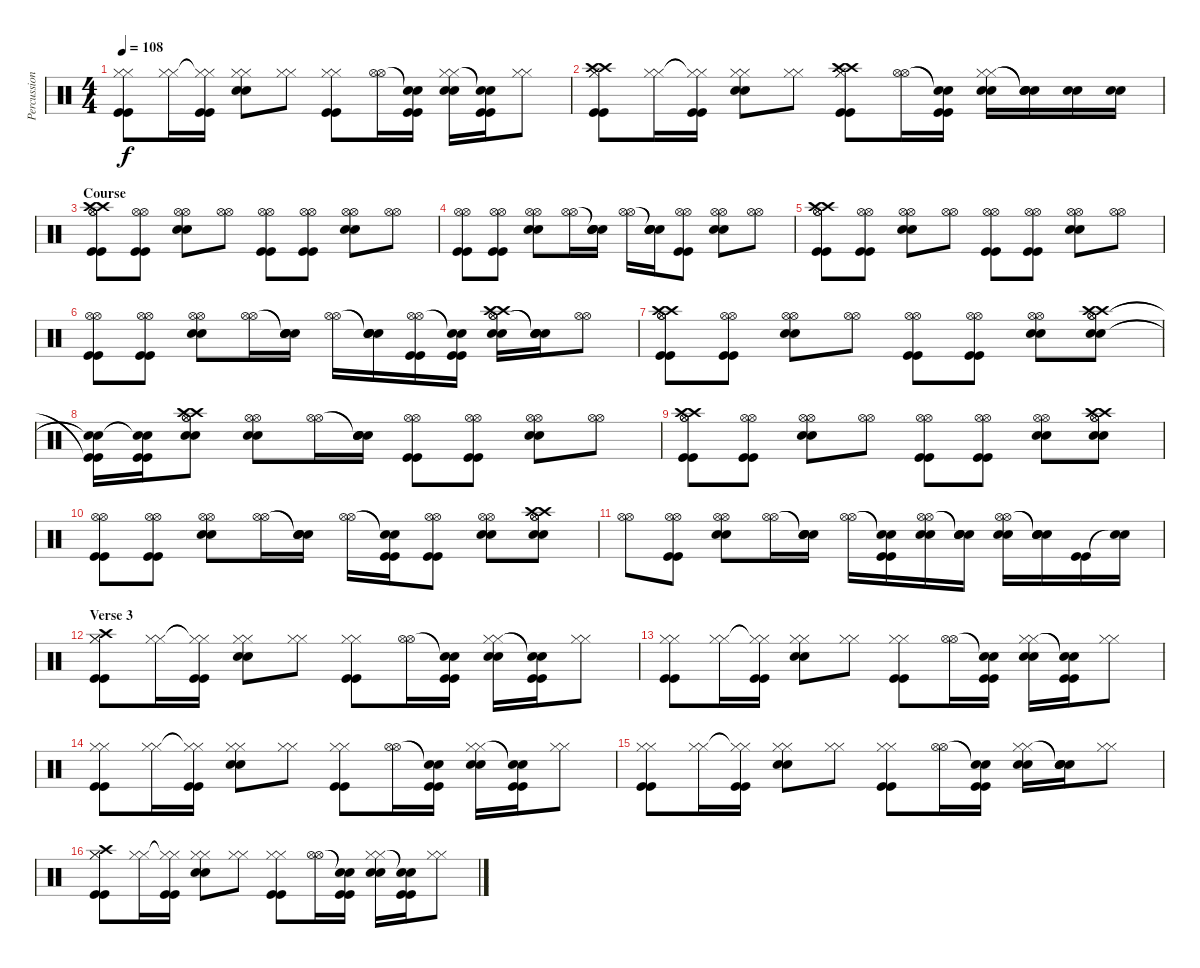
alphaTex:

\track ("Percussion" "Percussion") {instrument percussion}
\staff {score}
\articulation defaults
\ts (4 4)
\tempo 108
\clef neutral
\ks c
("Hi-Hat (closed)" "Hi-Hat (closed)" "Kick (hit)" "Kick (hit)").8{dy f} ("Hi-Hat (closed)" "Hi-Hat (closed)").16 ("Hi-Hat (closed)"{t} "Hi-Hat (closed)"{t} "Kick (hit)" "Kick (hit)").16 ("Hi-Hat (closed)" "Hi-Hat (closed)" "Electric Snare (hit)" "Electric Snare (hit)").8 ("Hi-Hat (closed)" "Hi-Hat (closed)").8 ("Hi-Hat (closed)" "Hi-Hat (closed)" "Kick (hit)" "Kick (hit)").8 ("Hi-Hat (open)" "Hi-Hat (open)").16 ("Snare (hit)"{t} "Snare (hit)"{t} "Kick (hit)" "Kick (hit)").16 ("Hi-Hat (closed)" "Hi-Hat (closed)" "Electric Snare (hit)" "Electric Snare (hit)").16 ("Snare (hit)"{t} "Snare (hit)"{t} "Kick (hit)" "Kick (hit)").16 ("Hi-Hat (closed)" "Hi-Hat (closed)").8 |
("Hi-Hat (closed)" "Hi-Hat (closed)" "Kick (hit)" "Kick (hit)" "Crash high (hit)" "Crash high (hit)").8 ("Hi-Hat (closed)" "Hi-Hat (closed)").16 ("Hi-Hat (closed)"{t} "Hi-Hat (closed)"{t} "Kick (hit)" "Kick (hit)").16 ("Hi-Hat (closed)" "Hi-Hat (closed)" "Electric Snare (hit)" "Electric Snare (hit)").8 ("Hi-Hat (closed)" "Hi-Hat (closed)").8 ("Hi-Hat (closed)" "Hi-Hat (closed)" "Kick (hit)" "Kick (hit)" "Crash high (hit)" "Crash high (hit)").8 ("Hi-Hat (open)" "Hi-Hat (open)").16 ("Snare (hit)"{t} "Snare (hit)"{t} "Kick (hit)" "Kick (hit)").16 ("Hi-Hat (closed)" "Hi-Hat (closed)" "Electric Snare (hit)" "Electric Snare (hit)").16 ("Snare (hit)"{t} "Snare (hit)"{t} "Electric Snare (hit)" "Electric Snare (hit)").16 ("Electric Snare (hit)" "Electric Snare (hit)").16 ("Electric Snare (hit)" "Electric Snare (hit)").16 |
\section ("" "Course")
("Hi-Hat (open)" "Hi-Hat (open)" "Kick (hit)" "Kick (hit)" "Crash high (hit)" "Crash high (hit)").8 ("Hi-Hat (open)" "Hi-Hat (open)" "Kick (hit)" "Kick (hit)").8 ("Hi-Hat (open)" "Hi-Hat (open)" "Electric Snare (hit)" "Electric Snare (hit)").8 ("Hi-Hat (open)" "Hi-Hat (open)").8 ("Hi-Hat (open)" "Hi-Hat (open)" "Kick (hit)" "Kick (hit)").8 ("Hi-Hat (open)" "Hi-Hat (open)" "Kick (hit)" "Kick (hit)").8 ("Hi-Hat (open)" "Hi-Hat (open)" "Electric Snare (hit)" "Electric Snare (hit)").8 ("Hi-Hat (open)" "Hi-Hat (open)").8 |
("Hi-Hat (open)" "Hi-Hat (open)" "Kick (hit)" "Kick (hit)").8 ("Hi-Hat (open)" "Hi-Hat (open)" "Kick (hit)" "Kick (hit)").8 ("Hi-Hat (open)" "Hi-Hat (open)" "Electric Snare (hit)" "Electric Snare (hit)").8 ("Hi-Hat (open)" "Hi-Hat (open)").16 ("Snare (hit)"{t} "Snare (hit)"{t} "Electric Snare (hit)" "Electric Snare (hit)").16 ("Hi-Hat (open)" "Hi-Hat (open)").16 ("Snare (hit)"{t} "Snare (hit)"{t} "Electric Snare (hit)" "Electric Snare (hit)").16 ("Hi-Hat (open)" "Hi-Hat (open)" "Kick (hit)" "Kick (hit)").8 ("Hi-Hat (open)" "Hi-Hat (open)" "Electric Snare (hit)" "Electric Snare (hit)").8 ("Hi-Hat (open)" "Hi-Hat (open)").8 |
("Hi-Hat (open)" "Hi-Hat (open)" "Kick (hit)" "Kick (hit)" "Crash high (hit)" "Crash high (hit)").8 ("Hi-Hat (open)" "Hi-Hat (open)" "Kick (hit)" "Kick (hit)").8 ("Hi-Hat (open)" "Hi-Hat (open)" "Electric Snare (hit)" "Electric Snare (hit)").8 ("Hi-Hat (open)" "Hi-Hat (open)").8 ("Hi-Hat (open)" "Hi-Hat (open)" "Kick (hit)" "Kick (hit)").8 ("Hi-Hat (open)" "Hi-Hat (open)" "Kick (hit)" "Kick (hit)").8 ("Hi-Hat (open)" "Hi-Hat (open)" "Electric Snare (hit)" "Electric Snare (hit)").8 ("Hi-Hat (open)" "Hi-Hat (open)").8 |
("Hi-Hat (open)" "Hi-Hat (open)" "Kick (hit)" "Kick (hit)").8 ("Hi-Hat (open)" "Hi-Hat (open)" "Kick (hit)" "Kick (hit)").8 ("Hi-Hat (open)" "Hi-Hat (open)" "Electric Snare (hit)" "Electric Snare (hit)").8 ("Hi-Hat (open)" "Hi-Hat (open)").16 ("Snare (hit)"{t} "Snare (hit)"{t} "Electric Snare (hit)" "Electric Snare (hit)").16 ("Hi-Hat (open)" "Hi-Hat (open)").16 ("Snare (hit)"{t} "Snare (hit)"{t} "Electric Snare (hit)" "Electric Snare (hit)").16 ("Hi-Hat (open)" "Hi-Hat (open)" "Kick (hit)" "Kick (hit)").16 ("Snare (hit)"{t} "Snare (hit)"{t} "Kick (hit)" "Kick (hit)").16 ("Hi-Hat (open)" "Hi-Hat (open)" "Electric Snare (hit)" "Electric Snare (hit)" "Crash high (hit)" "Crash high (hit)").16 ("Snare (hit)"{t} "Snare (hit)"{t} "Electric Snare (hit)" "Electric Snare (hit)").16 ("Hi-Hat (open)" "Hi-Hat (open)").8 |
("Hi-Hat (open)" "Hi-Hat (open)" "Kick (hit)" "Kick (hit)" "Crash high (hit)" "Crash high (hit)").8 ("Hi-Hat (open)" "Hi-Hat (open)" "Kick (hit)" "Kick (hit)").8 ("Hi-Hat (open)" "Hi-Hat (open)" "Electric Snare (hit)" "Electric Snare (hit)").8 ("Hi-Hat (open)" "Hi-Hat (open)").8 ("Hi-Hat (open)" "Hi-Hat (open)" "Kick (hit)" "Kick (hit)").8 ("Hi-Hat (open)" "Hi-Hat (open)" "Kick (hit)" "Kick (hit)").8 ("Hi-Hat (open)" "Hi-Hat (open)" "Electric Snare (hit)" "Electric Snare (hit)").8 ("Hi-Hat (open)" "Hi-Hat (open)" "Electric Snare (hit)" "Electric Snare (hit)" "Crash high (hit)" "Crash high (hit)").8 |
("Kick (hit)"{t} "Kick (hit)"{t} "Snare (hit)"{t} "Snare (hit)"{t}).16 ("Kick (hit)" "Kick (hit)" "Snare (hit)"{t} "Snare (hit)"{t}).16 ("Hi-Hat (open)" "Hi-Hat (open)" "Electric Snare (hit)" "Electric Snare (hit)" "Crash high (hit)" "Crash high (hit)").8 ("Hi-Hat (open)" "Hi-Hat (open)" "Electric Snare (hit)" "Electric Snare (hit)").8 ("Hi-Hat (open)" "Hi-Hat (open)").16 ("Snare (hit)"{t} "Snare (hit)"{t} "Electric Snare (hit)" "Electric Snare (hit)").16 ("Hi-Hat (open)" "Hi-Hat (open)" "Kick (hit)" "Kick (hit)").8 ("Hi-Hat (open)" "Hi-Hat (open)" "Kick (hit)" "Kick (hit)").8 ("Hi-Hat (open)" "Hi-Hat (open)" "Electric Snare (hit)" "Electric Snare (hit)").8 ("Hi-Hat (open)" "Hi-Hat (open)").8 |
("Hi-Hat (open)" "Hi-Hat (open)" "Kick (hit)" "Kick (hit)" "Crash high (hit)" "Crash high (hit)").8 ("Hi-Hat (open)" "Hi-Hat (open)" "Kick (hit)" "Kick (hit)").8 ("Hi-Hat (open)" "Hi-Hat (open)" "Electric Snare (hit)" "Electric Snare (hit)").8 ("Hi-Hat (open)" "Hi-Hat (open)").8 ("Hi-Hat (open)" "Hi-Hat (open)" "Kick (hit)" "Kick (hit)").8 ("Hi-Hat (open)" "Hi-Hat (open)" "Kick (hit)" "Kick (hit)").8 ("Hi-Hat (open)" "Hi-Hat (open)" "Electric Snare (hit)" "Electric Snare (hit)").8 ("Hi-Hat (open)" "Hi-Hat (open)" "Electric Snare (hit)" "Electric Snare (hit)" "Crash high (hit)" "Crash high (hit)").8 |
("Hi-Hat (open)" "Hi-Hat (open)" "Kick (hit)" "Kick (hit)").8 ("Hi-Hat (open)" "Hi-Hat (open)" "Kick (hit)" "Kick (hit)").8 ("Hi-Hat (open)" "Hi-Hat (open)" "Electric Snare (hit)" "Electric Snare (hit)").8 ("Hi-Hat (open)" "Hi-Hat (open)").16 ("Snare (hit)"{t} "Snare (hit)"{t} "Electric Snare (hit)" "Electric Snare (hit)").16 ("Hi-Hat (open)" "Hi-Hat (open)").16 ("Snare (hit)"{t} "Snare (hit)"{t} "Kick (hit)" "Kick (hit)").16 ("Hi-Hat (open)" "Hi-Hat (open)" "Kick (hit)" "Kick (hit)").8 ("Hi-Hat (open)" "Hi-Hat (open)" "Electric Snare (hit)" "Electric Snare (hit)").8 ("Hi-Hat (open)" "Hi-Hat (open)" "Electric Snare (hit)" "Electric Snare (hit)" "Crash high (hit)" "Crash high (hit)").8 |
("Hi-Hat (open)" "Hi-Hat (open)").8 ("Hi-Hat (open)" "Hi-Hat (open)" "Kick (hit)" "Kick (hit)").8 ("Hi-Hat (open)" "Hi-Hat (open)" "Electric Snare (hit)" "Electric Snare (hit)").8 ("Hi-Hat (open)" "Hi-Hat (open)").16 ("Snare (hit)"{t} "Snare (hit)"{t} "Electric Snare (hit)" "Electric Snare (hit)").16 ("Hi-Hat (open)" "Hi-Hat (open)").16 ("Snare (hit)"{t} "Snare (hit)"{t} "Kick (hit)" "Kick (hit)").16 ("Hi-Hat (open)" "Hi-Hat (open)" "Electric Snare (hit)" "Electric Snare (hit)").16 ("Snare (hit)"{t} "Snare (hit)"{t} "Electric Snare (hit)" "Electric Snare (hit)").16 ("Hi-Hat (open)" "Hi-Hat (open)" "Electric Snare (hit)" "Electric Snare (hit)").16 ("Snare (hit)"{t} "Snare (hit)"{t} "Electric Snare (hit)" "Electric Snare (hit)").16 ("Kick (hit)" "Kick (hit)").16 ("Snare (hit)"{t} "Snare (hit)"{t}).16 |
\section ("" "Verse 3")
("Hi-Hat (closed)" "Hi-Hat (closed)" "Kick (hit)" "Kick (hit)" "Crash high (hit)").8 ("Hi-Hat (closed)" "Hi-Hat (closed)").16 ("Hi-Hat (closed)"{t} "Hi-Hat (closed)"{t} "Kick (hit)" "Kick (hit)").16 ("Hi-Hat (closed)" "Hi-Hat (closed)" "Electric Snare (hit)" "Electric Snare (hit)").8 ("Hi-Hat (closed)" "Hi-Hat (closed)").8 ("Hi-Hat (closed)" "Hi-Hat (closed)" "Kick (hit)" "Kick (hit)").8 ("Hi-Hat (open)" "Hi-Hat (open)").16 ("Snare (hit)"{t} "Snare (hit)"{t} "Kick (hit)" "Kick (hit)").16 ("Hi-Hat (closed)" "Hi-Hat (closed)" "Electric Snare (hit)" "Electric Snare (hit)").16 ("Snare (hit)"{t} "Snare (hit)"{t} "Kick (hit)" "Kick (hit)").16 ("Hi-Hat (closed)" "Hi-Hat (closed)").8 |
("Hi-Hat (closed)" "Hi-Hat (closed)" "Kick (hit)" "Kick (hit)").8 ("Hi-Hat (closed)" "Hi-Hat (closed)").16 ("Hi-Hat (closed)"{t} "Hi-Hat (closed)"{t} "Kick (hit)" "Kick (hit)").16 ("Hi-Hat (closed)" "Hi-Hat (closed)" "Electric Snare (hit)" "Electric Snare (hit)").8 ("Hi-Hat (closed)" "Hi-Hat (closed)").8 ("Hi-Hat (closed)" "Hi-Hat (closed)" "Kick (hit)" "Kick (hit)").8 ("Hi-Hat (open)" "Hi-Hat (open)").16 ("Snare (hit)"{t} "Snare (hit)"{t} "Kick (hit)" "Kick (hit)").16 ("Hi-Hat (closed)" "Hi-Hat (closed)" "Electric Snare (hit)" "Electric Snare (hit)").16 ("Snare (hit)"{t} "Snare (hit)"{t} "Kick (hit)" "Kick (hit)").16 ("Hi-Hat (closed)" "Hi-Hat (closed)").8 |
("Hi-Hat (closed)" "Hi-Hat (closed)" "Kick (hit)" "Kick (hit)").8 ("Hi-Hat (closed)" "Hi-Hat (closed)").16 ("Hi-Hat (closed)"{t} "Hi-Hat (closed)"{t} "Kick (hit)" "Kick (hit)").16 ("Hi-Hat (closed)" "Hi-Hat (closed)" "Electric Snare (hit)" "Electric Snare (hit)").8 ("Hi-Hat (closed)" "Hi-Hat (closed)").8 ("Hi-Hat (closed)" "Hi-Hat (closed)" "Kick (hit)" "Kick (hit)").8 ("Hi-Hat (open)" "Hi-Hat (open)").16 ("Snare (hit)"{t} "Snare (hit)"{t} "Kick (hit)" "Kick (hit)").16 ("Hi-Hat (closed)" "Hi-Hat (closed)" "Electric Snare (hit)" "Electric Snare (hit)").16 ("Snare (hit)"{t} "Snare (hit)"{t} "Kick (hit)" "Kick (hit)").16 ("Hi-Hat (closed)" "Hi-Hat (closed)").8 |
("Hi-Hat (closed)" "Hi-Hat (closed)" "Kick (hit)" "Kick (hit)").8 ("Hi-Hat (closed)" "Hi-Hat (closed)").16 ("Hi-Hat (closed)"{t} "Hi-Hat (closed)"{t} "Kick (hit)" "Kick (hit)").16 ("Hi-Hat (closed)" "Hi-Hat (closed)" "Electric Snare (hit)" "Electric Snare (hit)").8 ("Hi-Hat (closed)" "Hi-Hat (closed)").8 ("Hi-Hat (closed)" "Hi-Hat (closed)" "Kick (hit)" "Kick (hit)").8 ("Hi-Hat (open)" "Hi-Hat (open)").16 ("Snare (hit)"{t} "Snare (hit)"{t} "Kick (hit)" "Kick (hit)").16 ("Hi-Hat (closed)" "Hi-Hat (closed)" "Electric Snare (hit)" "Electric Snare (hit)").16 ("Snare (hit)"{t} "Snare (hit)"{t} "Electric Snare (hit)" "Electric Snare (hit)").16 ("Hi-Hat (closed)" "Hi-Hat (closed)").8 |
("Hi-Hat (closed)" "Hi-Hat (closed)" "Kick (hit)" "Kick (hit)" "Crash high (hit)").8 ("Hi-Hat (closed)" "Hi-Hat (closed)").16 ("Hi-Hat (closed)"{t} "Hi-Hat (closed)"{t} "Kick (hit)" "Kick (hit)").16 ("Hi-Hat (closed)" "Hi-Hat (closed)" "Electric Snare (hit)" "Electric Snare (hit)").8 ("Hi-Hat (closed)" "Hi-Hat (closed)").8 ("Hi-Hat (closed)" "Hi-Hat (closed)" "Kick (hit)" "Kick (hit)").8 ("Hi-Hat (open)" "Hi-Hat (open)").16 ("Snare (hit)"{t} "Snare (hit)"{t} "Kick (hit)" "Kick (hit)").16 ("Hi-Hat (closed)" "Hi-Hat (closed)" "Electric Snare (hit)" "Electric Snare (hit)").16 ("Snare (hit)"{t} "Snare (hit)"{t} "Kick (hit)" "Kick (hit)").16 ("Hi-Hat (closed)" "Hi-Hat (closed)").8
